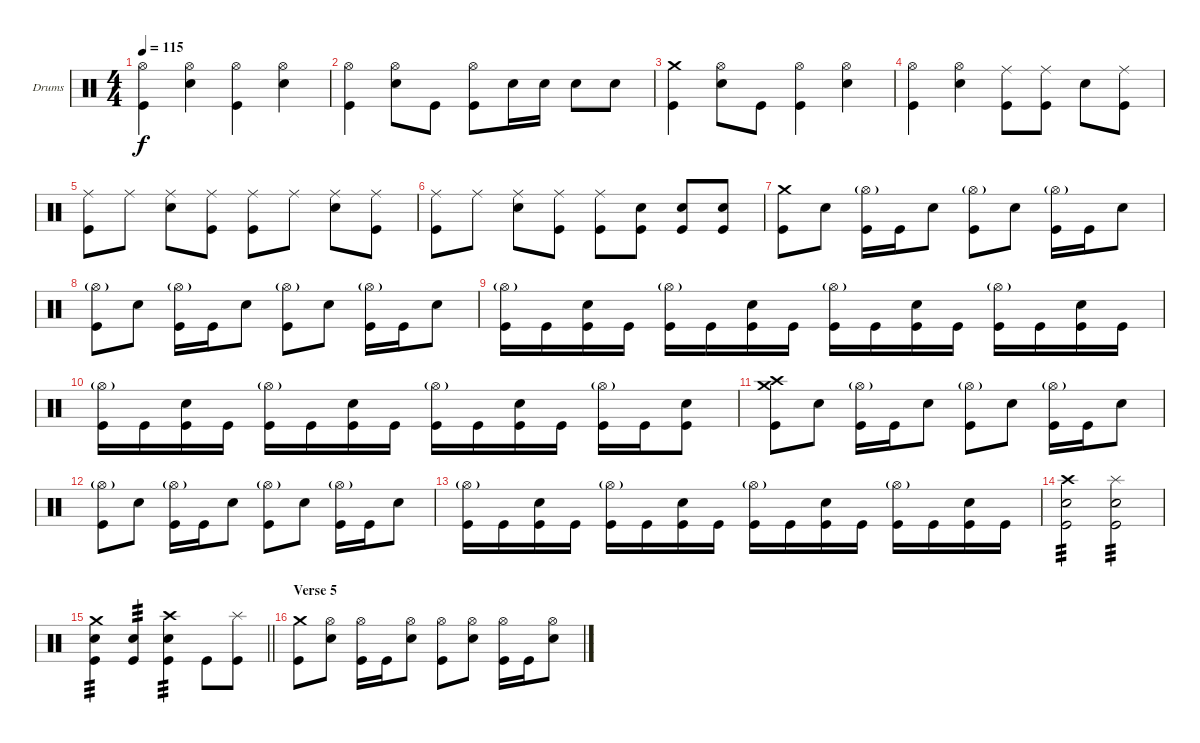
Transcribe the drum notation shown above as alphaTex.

\bracketExtendMode groupsimilarinstruments
\firstSystemTrackNameOrientation horizontal
\otherSystemsTrackNameOrientation horizontal
\track ("Drumkit" "Drums") {instrument percussion}
\staff {score}
\articulation defaults
\ts (4 4)
\tempo 115
\clef neutral
\ks c
("Hi-Hat (open)" "Kick (hit)").4{dy f} ("Hi-Hat (open)" "Snare (hit) 2").4 ("Hi-Hat (open)" "Kick (hit)").4 ("Hi-Hat (open)" "Snare (hit) 2").4 |
("Hi-Hat (open)" "Kick (hit)").4 ("Hi-Hat (open)" "Snare (hit) 2").8 "Kick (hit)".8 ("Hi-Hat (open)" "Kick (hit)").8 "Snare (hit) 2".16 "Snare (hit) 2".16 "Snare (hit) 2".8 "Snare (hit) 2".8 |
("Crash medium (hit)" "Kick (hit)").4 ("Hi-Hat (open)" "Snare (hit) 2").8 "Kick (hit)".8 ("Hi-Hat (open)" "Kick (hit)").4 ("Hi-Hat (open)" "Snare (hit) 2").4 |
("Hi-Hat (open)" "Kick (hit)").4 ("Hi-Hat (open)" "Snare (hit) 2").4 ("Ride (middle)" "Kick (hit)").8 ("Ride (middle)" "Kick (hit)").8 "Snare (hit) 2".8 ("Ride (middle)" "Kick (hit)").8 |
("Ride (middle)" "Kick (hit)").8 "Ride (middle)".8 ("Ride (middle)" "Snare (hit) 2").8 ("Ride (middle)" "Kick (hit)").8 ("Ride (middle)" "Kick (hit)").8 "Ride (middle)".8 ("Ride (middle)" "Snare (hit) 2").8 ("Ride (middle)" "Kick (hit)").8 |
("Ride (middle)" "Kick (hit)").8 "Ride (middle)".8 ("Ride (middle)" "Snare (hit) 2").8 ("Ride (middle)" "Kick (hit)").8 ("Ride (middle)" "Kick (hit)").8 ("Snare (hit) 2" "Kick (hit)").8 ("Snare (hit) 2" "Kick (hit)").8 ("Snare (hit) 2" "Kick (hit)").8 |
("Crash medium (hit)" "Kick (hit)").8 "Snare (hit) 2".8 ("Hi-Hat (open)"{g} "Kick (hit)").16 "Kick (hit)".16 "Snare (hit) 2".8 ("Hi-Hat (open)"{g} "Kick (hit)").8 "Snare (hit) 2".8 ("Hi-Hat (open)"{g} "Kick (hit)").16 "Kick (hit)".16 "Snare (hit) 2".8 |
("Hi-Hat (open)"{g} "Kick (hit)").8 "Snare (hit) 2".8 ("Hi-Hat (open)"{g} "Kick (hit)").16 "Kick (hit)".16 "Snare (hit) 2".8 ("Hi-Hat (open)"{g} "Kick (hit)").8 "Snare (hit) 2".8 ("Hi-Hat (open)"{g} "Kick (hit)").16 "Kick (hit)".16 "Snare (hit) 2".8 |
("Hi-Hat (open)"{g} "Kick (hit)").16 "Kick (hit)".16 ("Snare (hit) 2" "Kick (hit)").16 "Kick (hit)".16 ("Hi-Hat (open)"{g} "Kick (hit)").16 "Kick (hit)".16 ("Snare (hit) 2" "Kick (hit)").16 "Kick (hit)".16 ("Hi-Hat (open)"{g} "Kick (hit)").16 "Kick (hit)".16 ("Snare (hit) 2" "Kick (hit)").16 "Kick (hit)".16 ("Hi-Hat (open)"{g} "Kick (hit)").16 "Kick (hit)".16 ("Snare (hit) 2" "Kick (hit)").16 "Kick (hit)".16 |
("Hi-Hat (open)"{g} "Kick (hit)").16 "Kick (hit)".16 ("Snare (hit) 2" "Kick (hit)").16 "Kick (hit)".16 ("Hi-Hat (open)"{g} "Kick (hit)").16 "Kick (hit)".16 ("Snare (hit) 2" "Kick (hit)").16 "Kick (hit)".16 ("Hi-Hat (open)"{g} "Kick (hit)").16 "Kick (hit)".16 ("Snare (hit) 2" "Kick (hit)").16 "Kick (hit)".16 ("Hi-Hat (open)"{g} "Kick (hit)").16 "Kick (hit)".16 ("Snare (hit) 2" "Kick (hit)").8 |
("Crash medium (hit)" "Crash high (hit)" "Kick (hit)").8 "Snare (hit) 2".8 ("Hi-Hat (open)"{g} "Kick (hit)").16 "Kick (hit)".16 "Snare (hit) 2".8 ("Hi-Hat (open)"{g} "Kick (hit)").8 "Snare (hit) 2".8 ("Hi-Hat (open)"{g} "Kick (hit)").16 "Kick (hit)".16 "Snare (hit) 2".8 |
("Hi-Hat (open)"{g} "Kick (hit)").8 "Snare (hit) 2".8 ("Hi-Hat (open)"{g} "Kick (hit)").16 "Kick (hit)".16 "Snare (hit) 2".8 ("Hi-Hat (open)"{g} "Kick (hit)").8 "Snare (hit) 2".8 ("Hi-Hat (open)"{g} "Kick (hit)").16 "Kick (hit)".16 "Snare (hit) 2".8 |
("Hi-Hat (open)"{g} "Kick (hit)").16 "Kick (hit)".16 ("Snare (hit) 2" "Kick (hit)").16 "Kick (hit)".16 ("Hi-Hat (open)"{g} "Kick (hit)").16 "Kick (hit)".16 ("Snare (hit) 2" "Kick (hit)").16 "Kick (hit)".16 ("Hi-Hat (open)"{g} "Kick (hit)").16 "Kick (hit)".16 ("Snare (hit) 2" "Kick (hit)").16 "Kick (hit)".16 ("Hi-Hat (open)"{g} "Kick (hit)").16 "Kick (hit)".16 ("Snare (hit) 2" "Kick (hit)").16 "Kick (hit)".16 |
("Crash high (hit)" "Snare (hit) 2" "Kick (hit)").2{tp 3} ("Splash (hit)" "Snare (hit) 2" "Kick (hit)").2{tp 3} |
\barLineRight lightlight
("Crash medium (hit)" "Snare (hit) 2" "Kick (hit)").4{tp 3} ("Snare (hit) 2" "Kick (hit)").4{tp 3} ("Crash high (hit)" "Snare (hit) 2" "Kick (hit)").4{tp 3} "Kick (hit)".8 ("Splash (hit)" "Kick (hit)").8 |
\section ("" "Verse 5")
("Crash medium (hit)" "Kick (hit)").8 ("Hi-Hat (open)" "Snare (hit) 2").8 ("Hi-Hat (open)" "Kick (hit)").16 "Kick (hit)".16 ("Hi-Hat (open)" "Snare (hit) 2").8 ("Hi-Hat (open)" "Kick (hit)").8 ("Hi-Hat (open)" "Snare (hit) 2").8 ("Hi-Hat (open)" "Kick (hit)").16 "Kick (hit)".16 ("Hi-Hat (open)" "Snare (hit) 2").8
